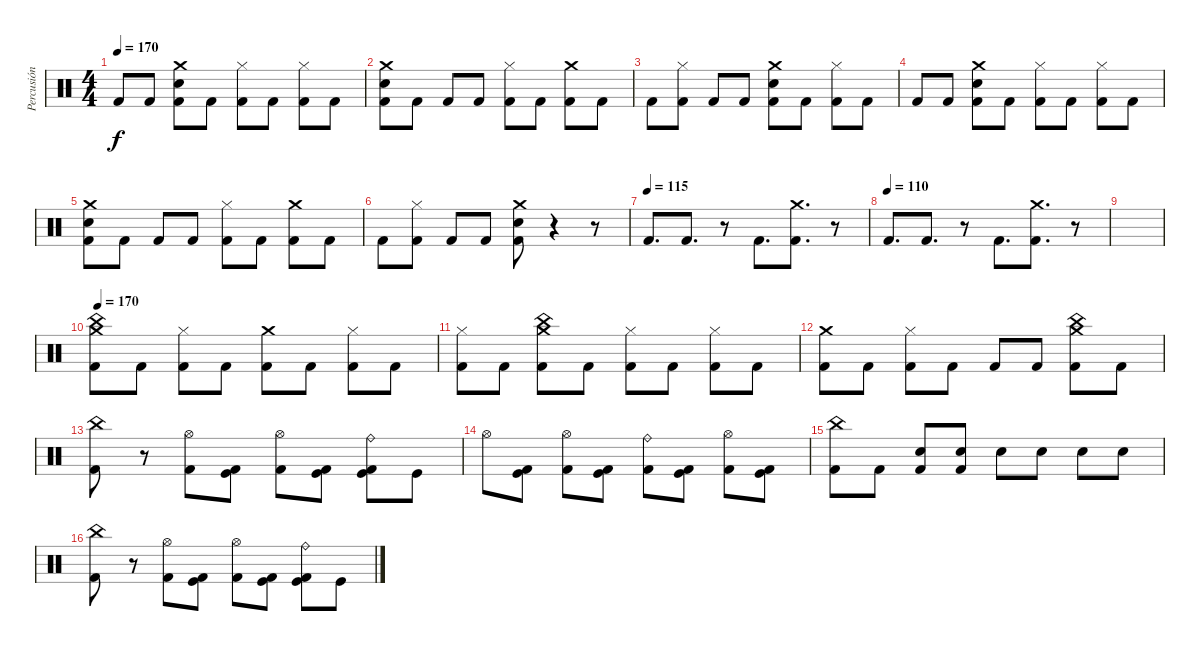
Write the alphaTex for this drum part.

\track ("Percusión" "Percusión") {instrument percussion}
\staff {score}
\articulation defaults
\ts (4 4)
\tempo 170
\clef neutral
\ks c "Kick (hit) 2".8{dy f} "Kick (hit) 2".8
("Snare (hit) 2" "Crash medium (hit)" "Kick (hit) 2").8 "Kick (hit) 2".8 ("Hi-Hat (closed)" "Kick (hit) 2").8 "Kick (hit) 2".8 ("Hi-Hat (closed)" "Kick (hit) 2").8 "Kick (hit) 2".8 |
("Snare (hit) 2" "Crash medium (hit)" "Kick (hit) 2").8 "Kick (hit) 2".8 "Kick (hit) 2".8 "Kick (hit) 2".8 ("Hi-Hat (closed)" "Kick (hit) 2").8 "Kick (hit) 2".8 ("Crash medium (hit)" "Kick (hit) 2").8 "Kick (hit) 2".8 |
"Kick (hit) 2".8 ("Hi-Hat (closed)" "Kick (hit) 2").8 "Kick (hit) 2".8 "Kick (hit) 2".8 ("Snare (hit) 2" "Crash medium (hit)" "Kick (hit) 2").8 "Kick (hit) 2".8 ("Hi-Hat (closed)" "Kick (hit) 2").8 "Kick (hit) 2".8 |
"Kick (hit) 2".8 "Kick (hit) 2".8 ("Snare (hit) 2" "Crash medium (hit)" "Kick (hit) 2").8 "Kick (hit) 2".8 ("Hi-Hat (closed)" "Kick (hit) 2").8 "Kick (hit) 2".8 ("Hi-Hat (closed)" "Kick (hit) 2").8 "Kick (hit) 2".8 |
("Snare (hit) 2" "Crash medium (hit)" "Kick (hit) 2").8 "Kick (hit) 2".8 "Kick (hit) 2".8 "Kick (hit) 2".8 ("Hi-Hat (closed)" "Kick (hit) 2").8 "Kick (hit) 2".8 ("Crash medium (hit)" "Kick (hit) 2").8 "Kick (hit) 2".8 |
"Kick (hit) 2".8 ("Hi-Hat (closed)" "Kick (hit) 2").8 "Kick (hit) 2".8 "Kick (hit) 2".8 ("Snare (hit) 2" "Crash medium (hit)" "Kick (hit) 2").8 r.4 r.8 |
\tempo 110
\tempo (115)
"Kick (hit) 2".8{d} "Kick (hit) 2".8{d} r.8 "Kick (hit) 2".8{d} ("Crash medium (hit)" "Kick (hit) 2").8{d} r.8 |
\tempo (110)
"Kick (hit) 2".8{d} "Kick (hit) 2".8{d} r.8 "Kick (hit) 2".8{d} ("Crash medium (hit)" "Kick (hit) 2").8{d} r.8 |
|
\tempo 170
("China (hit)" "Crash medium (hit)" "Kick (hit) 2").8 "Kick (hit) 2".8 ("Hi-Hat (closed)" "Kick (hit) 2").8 "Kick (hit) 2".8 ("Crash medium (hit)" "Kick (hit) 2").8 "Kick (hit) 2".8 ("Hi-Hat (closed)" "Kick (hit) 2").8 "Kick (hit) 2".8 |
("Hi-Hat (closed)" "Kick (hit) 2").8 "Kick (hit) 2".8 ("China (hit)" "Crash medium (hit)" "Kick (hit) 2").8 "Kick (hit) 2".8 ("Hi-Hat (closed)" "Kick (hit) 2").8 "Kick (hit) 2".8 ("Hi-Hat (closed)" "Kick (hit) 2").8 "Kick (hit) 2".8 |
("Crash medium (hit)" "Kick (hit) 2").8 "Kick (hit) 2".8 ("Hi-Hat (closed)" "Kick (hit) 2").8 "Kick (hit) 2".8 "Kick (hit) 2".8 "Kick (hit) 2".8 ("China (hit)" "Crash medium (hit)" "Kick (hit) 2").8 "Kick (hit) 2".8 |
("China (hit)" "Kick (hit) 2").8 r.8 ("Hi-Hat (open)" "Kick (hit) 2").8 ("Kick (hit)" "Kick (hit) 2").8 ("Hi-Hat (open)" "Kick (hit) 2").8 ("Kick (hit)" "Kick (hit) 2").8 ("Ride (bell)" "Kick (hit)" "Kick (hit) 2").8 "Kick (hit)".8 |
"Hi-Hat (open)".8 ("Kick (hit)" "Kick (hit) 2").8 ("Hi-Hat (open)" "Kick (hit) 2").8 ("Kick (hit)" "Kick (hit) 2").8 ("Ride (bell)" "Kick (hit) 2").8 ("Kick (hit)" "Kick (hit) 2").8 ("Hi-Hat (open)" "Kick (hit) 2").8 ("Kick (hit)" "Kick (hit) 2").8 |
("China (hit)" "Kick (hit) 2").8 "Kick (hit) 2".8 ("Snare (hit) 2" "Kick (hit) 2").8 ("Snare (hit) 2" "Kick (hit) 2").8 "Snare (hit) 2".8 "Snare (hit) 2".8 "Snare (hit) 2".8 "Snare (hit) 2".8 |
("China (hit)" "Kick (hit) 2").8 r.8 ("Hi-Hat (open)" "Kick (hit) 2").8 ("Kick (hit)" "Kick (hit) 2").8 ("Hi-Hat (open)" "Kick (hit) 2").8 ("Kick (hit)" "Kick (hit) 2").8 ("Ride (bell)" "Kick (hit)" "Kick (hit) 2").8 "Kick (hit)".8
